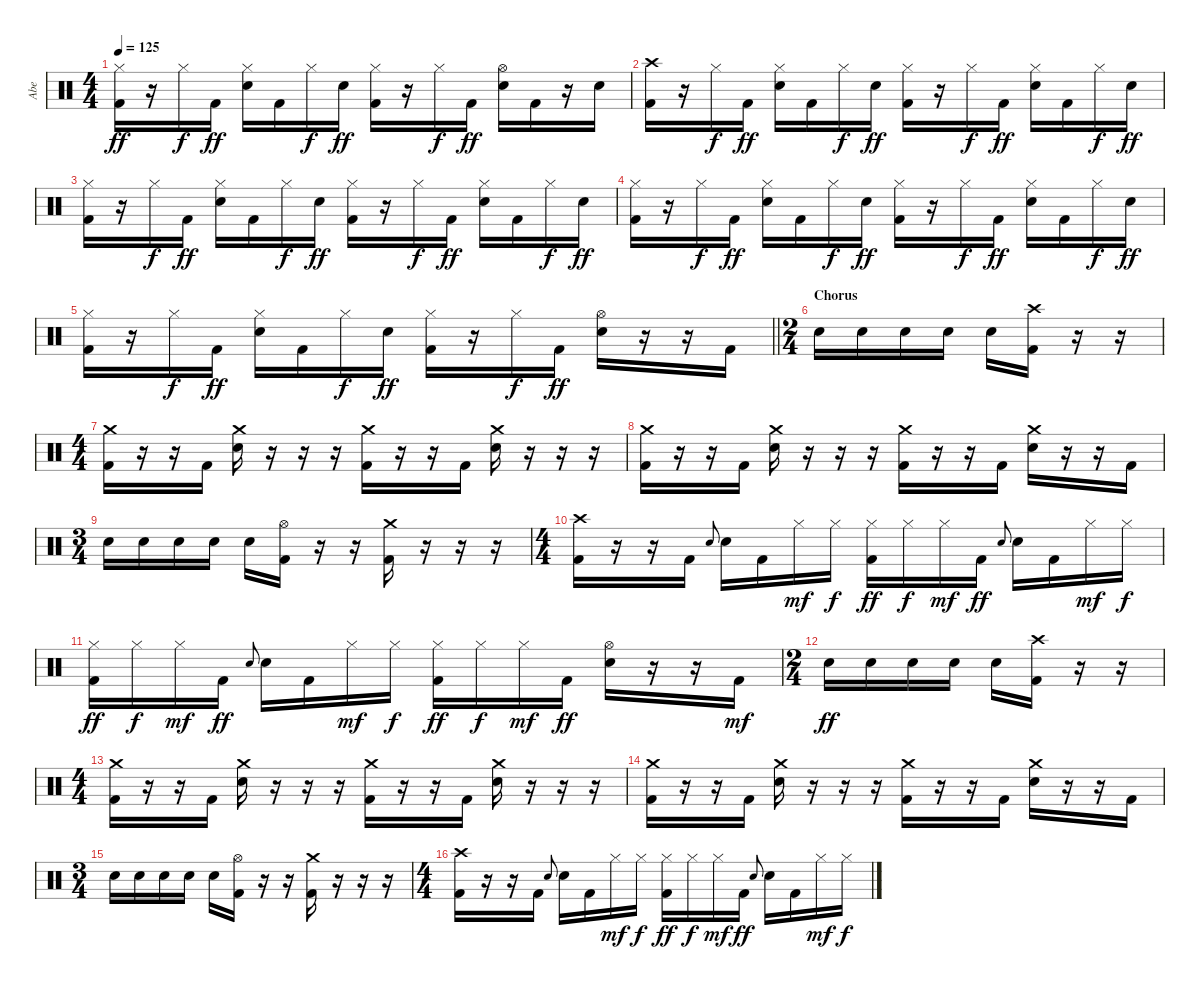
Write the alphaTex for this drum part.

\track ("Abe" "Abe") {instrument percussion}
\staff {score}
\articulation defaults
\ts (4 4)
\tempo 125
\clef neutral
\ks c
("Hi-Hat (closed)" "Kick (hit) 2").16{dy ff} r.16 "Hi-Hat (closed)".16{dy f} "Kick (hit) 2".16{dy ff} ("Hi-Hat (closed)" "Electric Snare (hit)").16 "Kick (hit) 2".16 "Hi-Hat (closed)".16{dy f} "Electric Snare (hit)".16{dy ff} ("Hi-Hat (closed)" "Kick (hit) 2").16 r.16 "Hi-Hat (closed)".16{dy f} "Kick (hit) 2".16{dy ff} ("Hi-Hat (open)" "Electric Snare (hit)").16 "Kick (hit) 2".16 r.16 "Electric Snare (hit)".16 |
("Crash high (hit)" "Kick (hit) 2").16 r.16 "Hi-Hat (closed)".16{dy f} "Kick (hit) 2".16{dy ff} ("Hi-Hat (closed)" "Electric Snare (hit)").16 "Kick (hit) 2".16 "Hi-Hat (closed)".16{dy f} "Electric Snare (hit)".16{dy ff} ("Hi-Hat (closed)" "Kick (hit) 2").16 r.16 "Hi-Hat (closed)".16{dy f} "Kick (hit) 2".16{dy ff} ("Hi-Hat (closed)" "Electric Snare (hit)").16 "Kick (hit) 2".16 "Hi-Hat (closed)".16{dy f} "Electric Snare (hit)".16{dy ff} |
("Hi-Hat (closed)" "Kick (hit) 2").16 r.16 "Hi-Hat (closed)".16{dy f} "Kick (hit) 2".16{dy ff} ("Hi-Hat (closed)" "Electric Snare (hit)").16 "Kick (hit) 2".16 "Hi-Hat (closed)".16{dy f} "Electric Snare (hit)".16{dy ff} ("Hi-Hat (closed)" "Kick (hit) 2").16 r.16 "Hi-Hat (closed)".16{dy f} "Kick (hit) 2".16{dy ff} ("Hi-Hat (closed)" "Electric Snare (hit)").16 "Kick (hit) 2".16 "Hi-Hat (closed)".16{dy f} "Electric Snare (hit)".16{dy ff} |
("Hi-Hat (closed)" "Kick (hit) 2").16 r.16 "Hi-Hat (closed)".16{dy f} "Kick (hit) 2".16{dy ff} ("Hi-Hat (closed)" "Electric Snare (hit)").16 "Kick (hit) 2".16 "Hi-Hat (closed)".16{dy f} "Electric Snare (hit)".16{dy ff} ("Hi-Hat (closed)" "Kick (hit) 2").16 r.16 "Hi-Hat (closed)".16{dy f} "Kick (hit) 2".16{dy ff} ("Hi-Hat (closed)" "Electric Snare (hit)").16 "Kick (hit) 2".16 "Hi-Hat (closed)".16{dy f} "Electric Snare (hit)".16{dy ff} |
\barLineRight lightlight
("Hi-Hat (closed)" "Kick (hit) 2").16 r.16 "Hi-Hat (closed)".16{dy f} "Kick (hit) 2".16{dy ff} ("Hi-Hat (closed)" "Electric Snare (hit)").16 "Kick (hit) 2".16 "Hi-Hat (closed)".16{dy f} "Electric Snare (hit)".16{dy ff} ("Hi-Hat (closed)" "Kick (hit) 2").16 r.16 "Hi-Hat (closed)".16{dy f} "Kick (hit) 2".16{dy ff} ("Hi-Hat (open)" "Electric Snare (hit)").16 r.16 r.16 "Kick (hit) 2".16 |
\ts (2 4)
\section ("" "Chorus")
"Electric Snare (hit)".16 "Electric Snare (hit)".16 "Electric Snare (hit)".16 "Electric Snare (hit)".16 "Electric Snare (hit)".16 ("Crash high (hit)" "Kick (hit) 2").16 r.16 r.16 |
\ts (4 4)
("Crash medium (hit)" "Kick (hit) 2").16 r.16 r.16 "Kick (hit) 2".16 ("Crash medium (hit)" "Electric Snare (hit)").16 r.16 r.16 r.16 ("Crash medium (hit)" "Kick (hit) 2").16 r.16 r.16 "Kick (hit) 2".16 ("Crash medium (hit)" "Electric Snare (hit)").16 r.16 r.16 r.16 |
("Crash medium (hit)" "Kick (hit) 2").16 r.16 r.16 "Kick (hit) 2".16 ("Crash medium (hit)" "Electric Snare (hit)").16 r.16 r.16 r.16 ("Crash medium (hit)" "Kick (hit) 2").16 r.16 r.16 "Kick (hit) 2".16 ("Crash medium (hit)" "Electric Snare (hit)").16 r.16 r.16 "Kick (hit) 2".16 |
\ts (3 4)
"Electric Snare (hit)".16 "Electric Snare (hit)".16 "Electric Snare (hit)".16 "Electric Snare (hit)".16 "Electric Snare (hit)".16 ("Hi-Hat (open)" "Kick (hit) 2").16 r.16 r.16 ("Crash medium (hit)" "Kick (hit) 2").16 r.16 r.16 r.16 |
\ts (4 4)
("Crash high (hit)" "Kick (hit) 2").16 r.16 r.16 "Kick (hit) 2".16 "Electric Snare (hit)".8{gr onbeat} "Electric Snare (hit)".16 "Kick (hit) 2".16 "Hi-Hat (closed)".16{dy mf} "Hi-Hat (closed)".16{dy f} ("Hi-Hat (closed)" "Kick (hit) 2").16{dy ff} "Hi-Hat (closed)".16{dy f} "Hi-Hat (closed)".16{dy mf} "Kick (hit) 2".16{dy ff} "Electric Snare (hit)".8{gr onbeat} "Electric Snare (hit)".16 "Kick (hit) 2".16 "Hi-Hat (closed)".16{dy mf} "Hi-Hat (closed)".16{dy f} |
("Hi-Hat (closed)" "Kick (hit) 2").16{dy ff} "Hi-Hat (closed)".16{dy f} "Hi-Hat (closed)".16{dy mf} "Kick (hit) 2".16{dy ff} "Electric Snare (hit)".8{gr onbeat} "Electric Snare (hit)".16 "Kick (hit) 2".16 "Hi-Hat (closed)".16{dy mf} "Hi-Hat (closed)".16{dy f} ("Hi-Hat (closed)" "Kick (hit) 2").16{dy ff} "Hi-Hat (closed)".16{dy f} "Hi-Hat (closed)".16{dy mf} "Kick (hit) 2".16{dy ff} ("Hi-Hat (open)" "Electric Snare (hit)").16 r.16 r.16 "Kick (hit) 2".16{dy mf} |
\ts (2 4)
"Electric Snare (hit)".16{dy ff} "Electric Snare (hit)".16 "Electric Snare (hit)".16 "Electric Snare (hit)".16 "Electric Snare (hit)".16 ("Crash high (hit)" "Kick (hit) 2").16 r.16 r.16 |
\ts (4 4)
("Crash medium (hit)" "Kick (hit) 2").16 r.16 r.16 "Kick (hit) 2".16 ("Crash medium (hit)" "Electric Snare (hit)").16 r.16 r.16 r.16 ("Crash medium (hit)" "Kick (hit) 2").16 r.16 r.16 "Kick (hit) 2".16 ("Crash medium (hit)" "Electric Snare (hit)").16 r.16 r.16 r.16 |
("Crash medium (hit)" "Kick (hit) 2").16 r.16 r.16 "Kick (hit) 2".16 ("Crash medium (hit)" "Electric Snare (hit)").16 r.16 r.16 r.16 ("Crash medium (hit)" "Kick (hit) 2").16 r.16 r.16 "Kick (hit) 2".16 ("Crash medium (hit)" "Electric Snare (hit)").16 r.16 r.16 "Kick (hit) 2".16 |
\ts (3 4)
"Electric Snare (hit)".16 "Electric Snare (hit)".16 "Electric Snare (hit)".16 "Electric Snare (hit)".16 "Electric Snare (hit)".16 ("Hi-Hat (open)" "Kick (hit) 2").16 r.16 r.16 ("Crash medium (hit)" "Kick (hit) 2").16 r.16 r.16 r.16 |
\ts (4 4)
("Crash high (hit)" "Kick (hit) 2").16 r.16 r.16 "Kick (hit) 2".16 "Electric Snare (hit)".8{gr onbeat} "Electric Snare (hit)".16 "Kick (hit) 2".16 "Hi-Hat (closed)".16{dy mf} "Hi-Hat (closed)".16{dy f} ("Hi-Hat (closed)" "Kick (hit) 2").16{dy ff} "Hi-Hat (closed)".16{dy f} "Hi-Hat (closed)".16{dy mf} "Kick (hit) 2".16{dy ff} "Electric Snare (hit)".8{gr onbeat} "Electric Snare (hit)".16 "Kick (hit) 2".16 "Hi-Hat (closed)".16{dy mf} "Hi-Hat (closed)".16{dy f}
